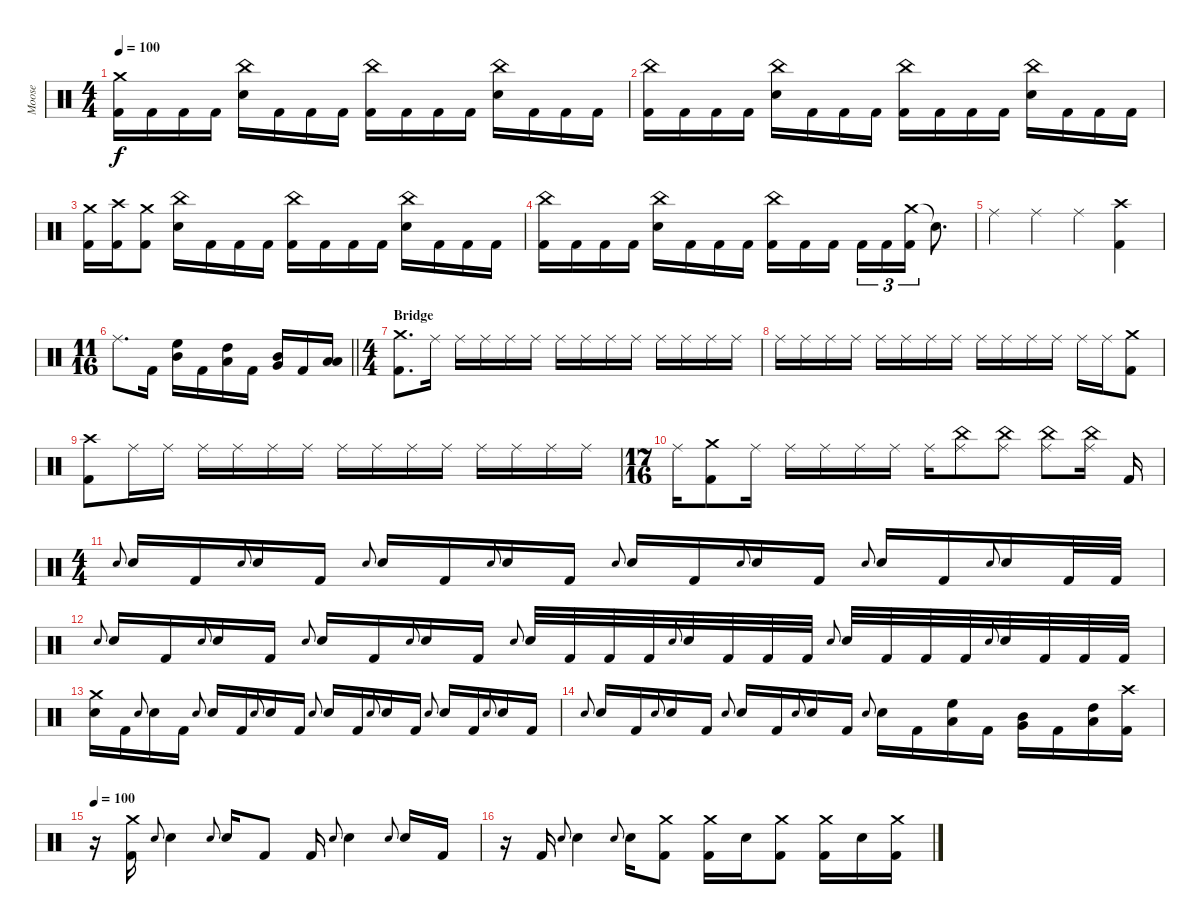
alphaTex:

\track ("Moose" "Moose") {instrument percussion}
\staff {score}
\articulation defaults
\ts (4 4)
\tempo 100
\clef neutral
\ks c
("Crash medium (hit)" "Kick (hit) 2").16{dy f} "Kick (hit) 2".16 "Kick (hit) 2".16 "Kick (hit) 2".16 ("China (hit)" "Electric Snare (hit)").16 "Kick (hit) 2".16 "Kick (hit) 2".16 "Kick (hit) 2".16 ("China (hit)" "Kick (hit) 2").16 "Kick (hit) 2".16 "Kick (hit) 2".16 "Kick (hit) 2".16 ("China (hit)" "Electric Snare (hit)").16 "Kick (hit) 2".16 "Kick (hit) 2".16 "Kick (hit) 2".16 |
("China (hit)" "Kick (hit) 2").16 "Kick (hit) 2".16 "Kick (hit) 2".16 "Kick (hit) 2".16 ("China (hit)" "Electric Snare (hit)").16 "Kick (hit) 2".16 "Kick (hit) 2".16 "Kick (hit) 2".16 ("China (hit)" "Kick (hit) 2").16 "Kick (hit) 2".16 "Kick (hit) 2".16 "Kick (hit) 2".16 ("China (hit)" "Electric Snare (hit)").16 "Kick (hit) 2".16 "Kick (hit) 2".16 "Kick (hit) 2".16 |
("Crash medium (hit)" "Kick (hit) 2").16 ("Crash high (hit)" "Kick (hit) 2").16 ("Crash medium (hit)" "Kick (hit) 2").8 ("China (hit)" "Electric Snare (hit)").16 "Kick (hit) 2".16 "Kick (hit) 2".16 "Kick (hit) 2".16 ("China (hit)" "Kick (hit) 2").16 "Kick (hit) 2".16 "Kick (hit) 2".16 "Kick (hit) 2".16 ("China (hit)" "Electric Snare (hit)").16 "Kick (hit) 2".16 "Kick (hit) 2".16 "Kick (hit) 2".16 |
("China (hit)" "Kick (hit) 2").16 "Kick (hit) 2".16 "Kick (hit) 2".16 "Kick (hit) 2".16 ("China (hit)" "Electric Snare (hit)").16 "Kick (hit) 2".16 "Kick (hit) 2".16 "Kick (hit) 2".16 ("China (hit)" "Kick (hit) 2").16 "Kick (hit) 2".16 "Kick (hit) 2".16{beam splitsecondary} "Kick (hit) 2".16{tu (3 2)} "Kick (hit) 2".16{tu (3 2)} ("Crash medium (hit)" "Kick (hit) 2").16{tu (3 2)} "Snare (hit)"{t}.8{d} |
"Ride (middle)".4 "Ride (middle)".4 "Ride (middle)".4 ("Crash high (hit)" "Kick (hit) 2").4 |
\ts (11 16)
\barLineRight lightlight "Ride (middle)".8{d} "Kick (hit) 2".16
("High Floor Tom (hit)" "Mid Tom (hit)").16 "Kick (hit) 2".16 ("High Tom (hit)" "Low Tom (hit)").16 "Kick (hit) 2".16 ("Very Low Tom (hit)" "Mid Tom (hit)").16 "Kick (hit) 2".16 ("Low Tom (hit)" "Low Floor Tom (hit)").16 |
\ts (4 4)
\section ("" "Bridge")
("Crash medium (hit)" "Kick (hit) 2").8{d} "Ride (middle)".16 "Ride (middle)".16 "Ride (middle)".16 "Ride (middle)".16 "Ride (middle)".16 "Ride (middle)".16 "Ride (middle)".16 "Ride (middle)".16 "Ride (middle)".16 "Ride (middle)".16 "Ride (middle)".16 "Ride (middle)".16 "Ride (middle)".16 |
"Ride (middle)".16 "Ride (middle)".16 "Ride (middle)".16 "Ride (middle)".16 "Ride (middle)".16 "Ride (middle)".16 "Ride (middle)".16 "Ride (middle)".16 "Ride (middle)".16 "Ride (middle)".16 "Ride (middle)".16 "Ride (middle)".16 "Ride (middle)".16 "Ride (middle)".16 ("Crash medium (hit)" "Kick (hit) 2").8 |
("Crash high (hit)" "Kick (hit) 2").8 "Ride (middle)".16 "Ride (middle)".16 "Ride (middle)".16 "Ride (middle)".16 "Ride (middle)".16 "Ride (middle)".16 "Ride (middle)".16 "Ride (middle)".16 "Ride (middle)".16 "Ride (middle)".16 "Ride (middle)".16 "Ride (middle)".16 "Ride (middle)".16 "Ride (middle)".16 |
\ts (17 16)
"Ride (middle)".16 ("Crash medium (hit)" "Kick (hit) 2").8 "Ride (middle)".16 "Ride (middle)".16 "Ride (middle)".16 "Ride (middle)".16 "Ride (middle)".16 "Ride (middle)".16 ("Ride (middle)" "China (hit)").8 ("Ride (middle)" "China (hit)").8 ("Ride (middle)" "China (hit)").8 ("Ride (middle)" "China (hit)").16 "Kick (hit) 2".16 |
\ts (4 4)
"Electric Snare (hit)".8{gr onbeat} "Electric Snare (hit)".16 "Kick (hit) 2".16 "Electric Snare (hit)".8{gr onbeat} "Electric Snare (hit)".16 "Kick (hit) 2".16 "Electric Snare (hit)".8{gr onbeat} "Electric Snare (hit)".16 "Kick (hit) 2".16 "Electric Snare (hit)".8{gr onbeat} "Electric Snare (hit)".16 "Kick (hit) 2".16 "Electric Snare (hit)".8{gr onbeat} "Electric Snare (hit)".16 "Kick (hit) 2".16 "Electric Snare (hit)".8{gr onbeat} "Electric Snare (hit)".16 "Kick (hit) 2".16 "Electric Snare (hit)".8{gr onbeat} "Electric Snare (hit)".16 "Kick (hit) 2".16 "Electric Snare (hit)".8{gr onbeat} "Electric Snare (hit)".16 "Kick (hit) 2".32 "Kick (hit) 2".32 |
"Electric Snare (hit)".8{gr onbeat} "Electric Snare (hit)".16 "Kick (hit) 2".16 "Electric Snare (hit)".8{gr onbeat} "Electric Snare (hit)".16 "Kick (hit) 2".16 "Electric Snare (hit)".8{gr onbeat} "Electric Snare (hit)".16 "Kick (hit) 2".16 "Electric Snare (hit)".8{gr onbeat} "Electric Snare (hit)".16 "Kick (hit) 2".16 "Electric Snare (hit)".8{gr onbeat} "Electric Snare (hit)".32 "Kick (hit) 2".32 "Kick (hit) 2".32 "Kick (hit) 2".32 "Electric Snare (hit)".8{gr onbeat} "Electric Snare (hit)".32 "Kick (hit) 2".32 "Kick (hit) 2".32 "Kick (hit) 2".32 "Electric Snare (hit)".8{gr onbeat} "Electric Snare (hit)".32 "Kick (hit) 2".32 "Kick (hit) 2".32 "Kick (hit) 2".32 "Electric Snare (hit)".8{gr onbeat} "Electric Snare (hit)".32 "Kick (hit) 2".32 "Kick (hit) 2".32 "Kick (hit) 2".32 |
("Crash medium (hit)" "Electric Snare (hit)").16 "Kick (hit) 2".16 "Electric Snare (hit)".8{gr onbeat} "Electric Snare (hit)".16 "Kick (hit) 2".16 "Electric Snare (hit)".8{gr onbeat} "Electric Snare (hit)".16 "Kick (hit) 2".16 "Electric Snare (hit)".8{gr onbeat} "Electric Snare (hit)".16 "Kick (hit) 2".16 "Electric Snare (hit)".8{gr onbeat} "Electric Snare (hit)".16 "Kick (hit) 2".16 "Electric Snare (hit)".8{gr onbeat} "Electric Snare (hit)".16 "Kick (hit) 2".16 "Electric Snare (hit)".8{gr onbeat} "Electric Snare (hit)".16 "Kick (hit) 2".16 "Electric Snare (hit)".8{gr onbeat} "Electric Snare (hit)".16 "Kick (hit) 2".16 |
"Electric Snare (hit)".8{gr onbeat} "Electric Snare (hit)".16 "Kick (hit) 2".16 "Electric Snare (hit)".8{gr onbeat} "Electric Snare (hit)".16 "Kick (hit) 2".16 "Electric Snare (hit)".8{gr onbeat} "Electric Snare (hit)".16 "Kick (hit) 2".16 "Electric Snare (hit)".8{gr onbeat} "Electric Snare (hit)".16 "Kick (hit) 2".16 "Electric Snare (hit)".8{gr onbeat} "Electric Snare (hit)".16 "Kick (hit) 2".16 ("High Floor Tom (hit)" "Low Tom (hit)").16 "Kick (hit) 2".16 ("Mid Tom (hit)" "Very Low Tom (hit)").16 "Kick (hit) 2".16 ("High Tom (hit)" "Low Floor Tom (hit)").16 ("Crash high (hit)" "Kick (hit) 2").16 |
\tempo 100
r.16 ("Crash medium (hit)" "Kick (hit) 2").16 "Electric Snare (hit)".8{gr onbeat} "Electric Snare (hit)".4 "Electric Snare (hit)".8{gr onbeat} "Electric Snare (hit)".16 "Kick (hit) 2".8 "Kick (hit) 2".16 "Electric Snare (hit)".8{gr onbeat} "Electric Snare (hit)".4 "Electric Snare (hit)".8{gr onbeat} "Electric Snare (hit)".16 "Kick (hit) 2".16 |
r.16 "Kick (hit) 2".16 "Electric Snare (hit)".8{gr onbeat} "Electric Snare (hit)".4 "Electric Snare (hit)".8{gr onbeat} "Electric Snare (hit)".16 ("Crash medium (hit)" "Kick (hit) 2").8 ("Crash medium (hit)" "Kick (hit) 2").16 "Electric Snare (hit)".16 ("Crash medium (hit)" "Kick (hit) 2").8 ("Crash medium (hit)" "Kick (hit) 2").16 "Electric Snare (hit)".16 ("Crash medium (hit)" "Kick (hit) 2").16
